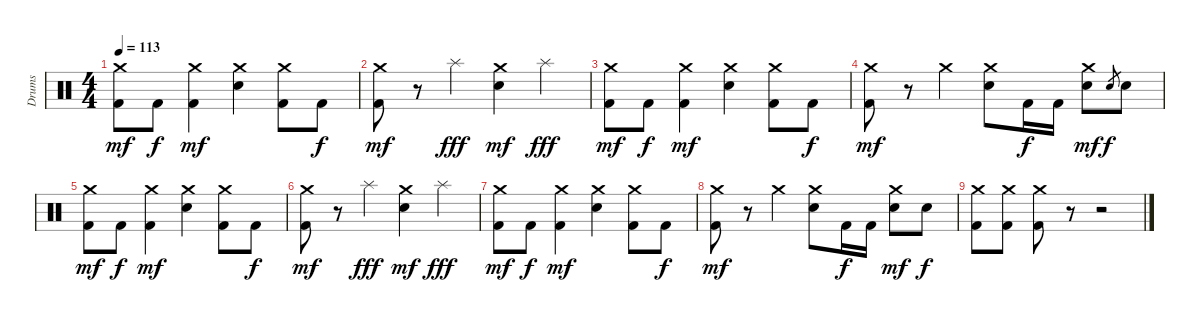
\track ("Drums" "Drums") {instrument percussion}
\staff {score}
\articulation defaults
\ts (4 4)
\tempo 113
\clef neutral
\ks c
("Crash medium (hit)" "Kick (hit) 2").8{dy mf} "Kick (hit) 2".8{dy f} ("Crash medium (hit)" "Kick (hit) 2").4{dy mf} ("Crash medium (hit)" "Electric Snare (hit)").4 ("Crash medium (hit)" "Kick (hit) 2").8 "Kick (hit) 2".8{dy f} |
("Crash medium (hit)" "Kick (hit) 2").8{dy mf} r.8 "Splash (hit)".4{dy fff} ("Crash medium (hit)" "Electric Snare (hit)").4{dy mf} "Splash (hit)".4{dy fff} |
("Crash medium (hit)" "Kick (hit) 2").8{dy mf} "Kick (hit) 2".8{dy f} ("Crash medium (hit)" "Kick (hit) 2").4{dy mf} ("Crash medium (hit)" "Electric Snare (hit)").4 ("Crash medium (hit)" "Kick (hit) 2").8 "Kick (hit) 2".8{dy f} |
("Crash medium (hit)" "Kick (hit) 2").8{dy mf} r.8 "Crash medium (hit)".4 ("Crash medium (hit)" "Electric Snare (hit)").8 "Kick (hit) 2".16{dy f} "Kick (hit) 2".16 ("Crash medium (hit)" "Electric Snare (hit)").8{dy mf} "Electric Snare (hit)".8{gr dy f} "Electric Snare (hit)".8 |
("Crash medium (hit)" "Kick (hit) 2").8{dy mf} "Kick (hit) 2".8{dy f} ("Crash medium (hit)" "Kick (hit) 2").4{dy mf} ("Crash medium (hit)" "Electric Snare (hit)").4 ("Crash medium (hit)" "Kick (hit) 2").8 "Kick (hit) 2".8{dy f} |
("Crash medium (hit)" "Kick (hit) 2").8{dy mf} r.8 "Splash (hit)".4{dy fff} ("Crash medium (hit)" "Electric Snare (hit)").4{dy mf} "Splash (hit)".4{dy fff} |
("Crash medium (hit)" "Kick (hit) 2").8{dy mf} "Kick (hit) 2".8{dy f} ("Crash medium (hit)" "Kick (hit) 2").4{dy mf} ("Crash medium (hit)" "Electric Snare (hit)").4 ("Crash medium (hit)" "Kick (hit) 2").8 "Kick (hit) 2".8{dy f} |
("Crash medium (hit)" "Kick (hit) 2").8{dy mf} r.8 "Crash medium (hit)".4 ("Crash medium (hit)" "Electric Snare (hit)").8 "Kick (hit) 2".16{dy f} "Kick (hit) 2".16 ("Crash medium (hit)" "Electric Snare (hit)").8{dy mf} "Electric Snare (hit)".8{dy f} |
("Crash medium (hit)" "Kick (hit) 2").8 ("Crash medium (hit)" "Kick (hit) 2").8 ("Crash medium (hit)" "Kick (hit) 2").8 r.8 r.2
